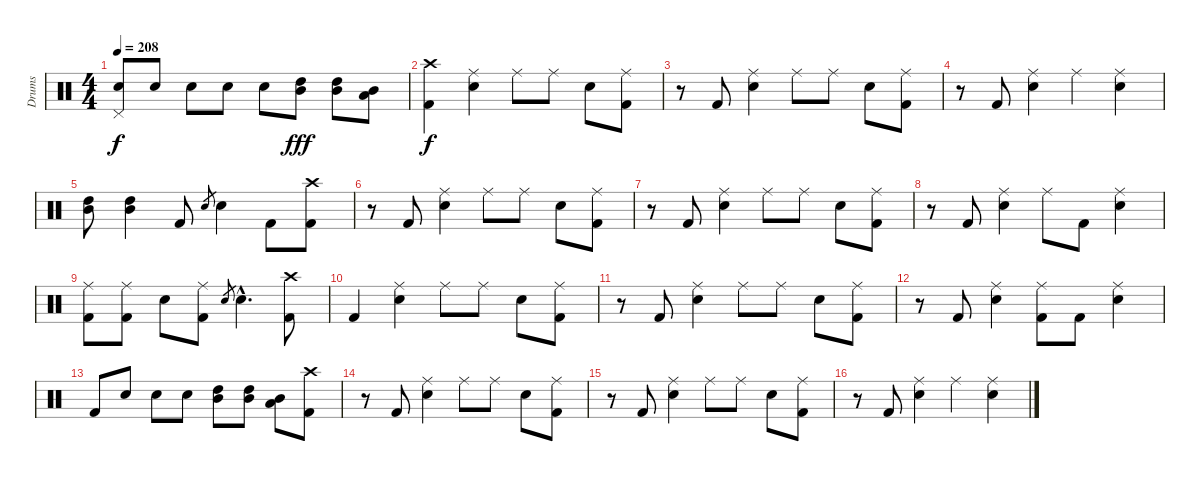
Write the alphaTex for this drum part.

\track ("Drums" "Drums") {instrument percussion}
\staff {score}
\articulation defaults
\ts (4 4)
\tempo 208
\clef neutral
\ks c
("Pedal Hi-Hat (hit)" "Electric Snare (hit)").8{dy f} "Electric Snare (hit)".8 "Electric Snare (hit)".8 "Electric Snare (hit)".8 "Electric Snare (hit)".8 ("High Tom (hit)" "Mid Tom (hit)").8{dy fff} ("High Tom (hit)" "Mid Tom (hit)").8 ("Mid Tom (hit)" "Low Tom (hit)").8 |
("Crash high (hit)" "Kick (hit) 2").4{dy f} ("Ride (middle)" "Electric Snare (hit)").4 "Ride (middle)".8 "Ride (middle)".8 "Electric Snare (hit)".8 ("Ride (middle)" "Kick (hit) 2").8 |
r.8 "Kick (hit) 2".8 ("Ride (middle)" "Electric Snare (hit)").4 "Ride (middle)".8 "Ride (middle)".8 "Electric Snare (hit)".8 ("Ride (middle)" "Kick (hit) 2").8 |
r.8 "Kick (hit) 2".8 ("Ride (middle)" "Electric Snare (hit)").4 "Ride (middle)".4 ("Ride (middle)" "Electric Snare (hit)").4 |
("High Tom (hit)" "Mid Tom (hit)").8 ("High Tom (hit)" "Mid Tom (hit)").4 "Kick (hit) 2".8 "Electric Snare (hit)".8{gr} "Electric Snare (hit)".4 "Kick (hit) 2".8 ("Crash high (hit)" "Kick (hit) 2").8 |
r.8 "Kick (hit) 2".8 ("Ride (middle)" "Electric Snare (hit)").4 "Ride (middle)".8 "Ride (middle)".8 "Electric Snare (hit)".8 ("Ride (middle)" "Kick (hit) 2").8 |
r.8 "Kick (hit) 2".8 ("Ride (middle)" "Electric Snare (hit)").4 "Ride (middle)".8 "Ride (middle)".8 "Electric Snare (hit)".8 ("Ride (middle)" "Kick (hit) 2").8 |
r.8 "Kick (hit) 2".8 ("Ride (middle)" "Electric Snare (hit)").4 "Ride (middle)".8 "Kick (hit) 2".8 ("Ride (middle)" "Electric Snare (hit)").4 |
("Ride (middle)" "Kick (hit) 2").8 ("Ride (middle)" "Kick (hit) 2").8 "Electric Snare (hit)".8 ("Ride (middle)" "Kick (hit) 2").8 "Electric Snare (hit)".8{gr} "Electric Snare (hit)"{hac}.4{d} ("Crash high (hit)" "Kick (hit) 2").8 |
"Kick (hit) 2".4 ("Ride (middle)" "Electric Snare (hit)").4 "Ride (middle)".8 "Ride (middle)".8 "Electric Snare (hit)".8 ("Ride (middle)" "Kick (hit) 2").8 |
r.8 "Kick (hit) 2".8 ("Ride (middle)" "Electric Snare (hit)").4 "Ride (middle)".8 "Ride (middle)".8 "Electric Snare (hit)".8 ("Ride (middle)" "Kick (hit) 2").8 |
r.8 "Kick (hit) 2".8 ("Ride (middle)" "Electric Snare (hit)").4 ("Ride (middle)" "Kick (hit) 2").8 "Kick (hit) 2".8 ("Ride (middle)" "Electric Snare (hit)").4 |
"Kick (hit) 2".8 "Electric Snare (hit)".8 "Electric Snare (hit)".8 "Electric Snare (hit)".8 ("High Tom (hit)" "Mid Tom (hit)").8 ("High Tom (hit)" "Mid Tom (hit)").8 ("Mid Tom (hit)" "Low Tom (hit)").8 ("Crash high (hit)" "Kick (hit) 2").8 |
r.8 "Kick (hit) 2".8 ("Ride (middle)" "Electric Snare (hit)").4 "Ride (middle)".8 "Ride (middle)".8 "Electric Snare (hit)".8 ("Ride (middle)" "Kick (hit) 2").8 |
r.8 "Kick (hit) 2".8 ("Ride (middle)" "Electric Snare (hit)").4 "Ride (middle)".8 "Ride (middle)".8 "Electric Snare (hit)".8 ("Ride (middle)" "Kick (hit) 2").8 |
r.8 "Kick (hit) 2".8 ("Ride (middle)" "Electric Snare (hit)").4 "Ride (middle)".4 ("Ride (middle)" "Electric Snare (hit)").4
